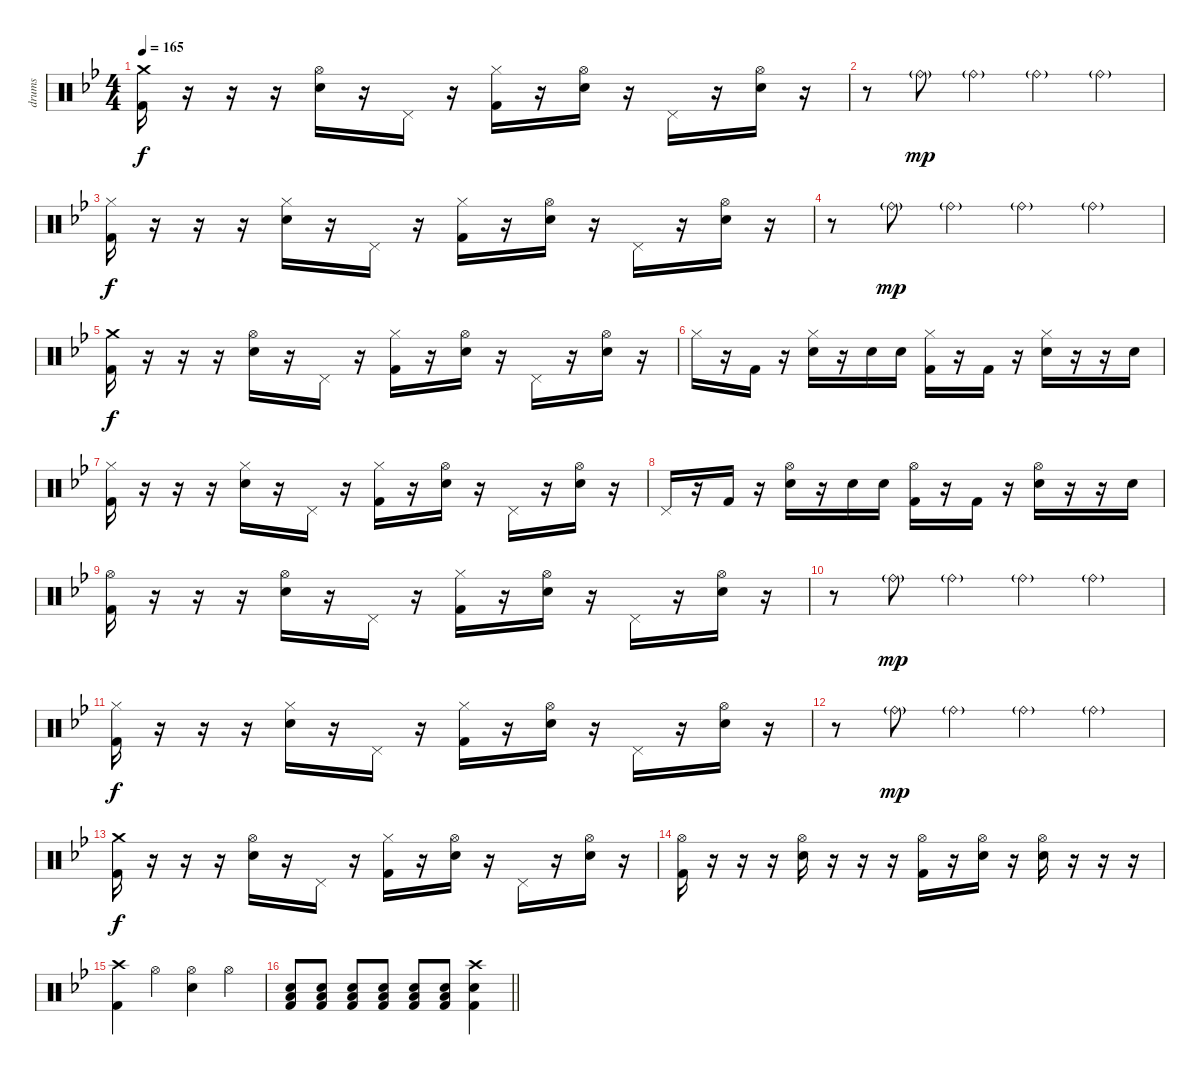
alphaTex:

\track ("drums" "drums") {instrument percussion}
\staff {score}
\articulation defaults
\ts (4 4)
\tempo 165
\clef neutral
\ks bb
("Crash medium (hit)" "Kick (hit) 2").16{dy f} r.16 r.16 r.16 ("Hi-Hat (open)" "Snare (hit) 2").16 r.16 "Pedal Hi-Hat (hit)".16 r.16 ("Hi-Hat (closed)" "Kick (hit) 2").16 r.16 ("Hi-Hat (open)" "Snare (hit) 2").16 r.16 "Pedal Hi-Hat (hit)".16 r.16 ("Hi-Hat (open)" "Snare (hit) 2").16 r.16 |
r.8 "Ride (bell)"{g}.8{dy mp} "Ride (bell)"{g}.4 "Ride (bell)"{g}.4 "Ride (bell)"{g}.4 |
("Hi-Hat (closed)" "Kick (hit) 2").16{dy f} r.16 r.16 r.16 ("Hi-Hat (closed)" "Snare (hit) 2").16 r.16 "Pedal Hi-Hat (hit)".16 r.16 ("Hi-Hat (closed)" "Kick (hit) 2").16 r.16 ("Hi-Hat (open)" "Snare (hit) 2").16 r.16 "Pedal Hi-Hat (hit)".16 r.16 ("Hi-Hat (open)" "Snare (hit) 2").16 r.16 |
r.8 "Ride (bell)"{g}.8{dy mp} "Ride (bell)"{g}.4 "Ride (bell)"{g}.4 "Ride (bell)"{g}.4 |
("Crash medium (hit)" "Kick (hit) 2").16{dy f} r.16 r.16 r.16 ("Hi-Hat (open)" "Snare (hit) 2").16 r.16 "Pedal Hi-Hat (hit)".16 r.16 ("Hi-Hat (closed)" "Kick (hit) 2").16 r.16 ("Hi-Hat (open)" "Snare (hit) 2").16 r.16 "Pedal Hi-Hat (hit)".16 r.16 ("Hi-Hat (open)" "Snare (hit) 2").16 r.16 |
"Hi-Hat (closed)".16 r.16 "Kick (hit) 2".16 r.16 ("Hi-Hat (closed)" "Snare (hit) 2").16 r.16 "Snare (hit) 2".16 "Snare (hit) 2".16 ("Hi-Hat (closed)" "Kick (hit) 2").16 r.16 "Kick (hit) 2".16 r.16 ("Hi-Hat (closed)" "Snare (hit) 2").16 r.16 r.16 "Snare (hit) 2".16 |
("Hi-Hat (closed)" "Kick (hit) 2").16 r.16 r.16 r.16 ("Hi-Hat (closed)" "Snare (hit) 2").16 r.16 "Pedal Hi-Hat (hit)".16 r.16 ("Hi-Hat (closed)" "Kick (hit) 2").16 r.16 ("Hi-Hat (open)" "Snare (hit) 2").16 r.16 "Pedal Hi-Hat (hit)".16 r.16 ("Hi-Hat (open)" "Snare (hit) 2").16 r.16 |
"Pedal Hi-Hat (hit)".16 r.16 "Kick (hit) 2".16 r.16 ("Hi-Hat (open)" "Snare (hit) 2").16 r.16 "Snare (hit) 2".16 "Snare (hit) 2".16 ("Hi-Hat (open)" "Kick (hit) 2").16 r.16 "Kick (hit) 2".16 r.16 ("Hi-Hat (open)" "Snare (hit) 2").16 r.16 r.16 "Snare (hit) 2".16 |
("Hi-Hat (open)" "Kick (hit) 2").16 r.16 r.16 r.16 ("Hi-Hat (open)" "Snare (hit) 2").16 r.16 "Pedal Hi-Hat (hit)".16 r.16 ("Hi-Hat (closed)" "Kick (hit) 2").16 r.16 ("Hi-Hat (open)" "Snare (hit) 2").16 r.16 "Pedal Hi-Hat (hit)".16 r.16 ("Hi-Hat (open)" "Snare (hit) 2").16 r.16 |
r.8 "Ride (bell)"{g}.8{dy mp} "Ride (bell)"{g}.4 "Ride (bell)"{g}.4 "Ride (bell)"{g}.4 |
("Hi-Hat (closed)" "Kick (hit) 2").16{dy f} r.16 r.16 r.16 ("Hi-Hat (closed)" "Snare (hit) 2").16 r.16 "Pedal Hi-Hat (hit)".16 r.16 ("Hi-Hat (closed)" "Kick (hit) 2").16 r.16 ("Hi-Hat (open)" "Snare (hit) 2").16 r.16 "Pedal Hi-Hat (hit)".16 r.16 ("Hi-Hat (open)" "Snare (hit) 2").16 r.16 |
r.8 "Ride (bell)"{g}.8{dy mp} "Ride (bell)"{g}.4 "Ride (bell)"{g}.4 "Ride (bell)"{g}.4 |
("Crash medium (hit)" "Kick (hit) 2").16{dy f} r.16 r.16 r.16 ("Hi-Hat (open)" "Snare (hit) 2").16 r.16 "Pedal Hi-Hat (hit)".16 r.16 ("Hi-Hat (closed)" "Kick (hit) 2").16 r.16 ("Hi-Hat (open)" "Snare (hit) 2").16 r.16 "Pedal Hi-Hat (hit)".16 r.16 ("Hi-Hat (open)" "Snare (hit) 2").16 r.16 |
("Hi-Hat (open)" "Kick (hit) 2").16 r.16 r.16 r.16 ("Hi-Hat (open)" "Snare (hit) 2").16 r.16 r.16 r.16 ("Hi-Hat (open)" "Kick (hit) 2").16 r.16 ("Hi-Hat (open)" "Snare (hit) 2").16 r.16 ("Hi-Hat (open)" "Snare (hit) 2").16 r.16 r.16 r.16 |
("Crash high (hit)" "Kick (hit) 2").4 "Hi-Hat (open)".4 ("Hi-Hat (open)" "Snare (hit) 2").4 "Hi-Hat (open)".4 |
\barLineRight lightlight
("Low Floor Tom (hit)" "Snare (hit) 2" "Kick (hit) 2").8{volume 4} ("Low Floor Tom (hit)" "Snare (hit) 2" "Kick (hit) 2").8 ("Low Floor Tom (hit)" "Snare (hit) 2" "Kick (hit) 2").8{volume 6} ("Low Floor Tom (hit)" "Snare (hit) 2" "Kick (hit) 2").8 ("Low Floor Tom (hit)" "Snare (hit) 2" "Kick (hit) 2").8{volume 8} ("Low Floor Tom (hit)" "Snare (hit) 2" "Kick (hit) 2").8 ("Crash high (hit)" "Snare (hit) 2" "Kick (hit) 2").4{volume 9}
